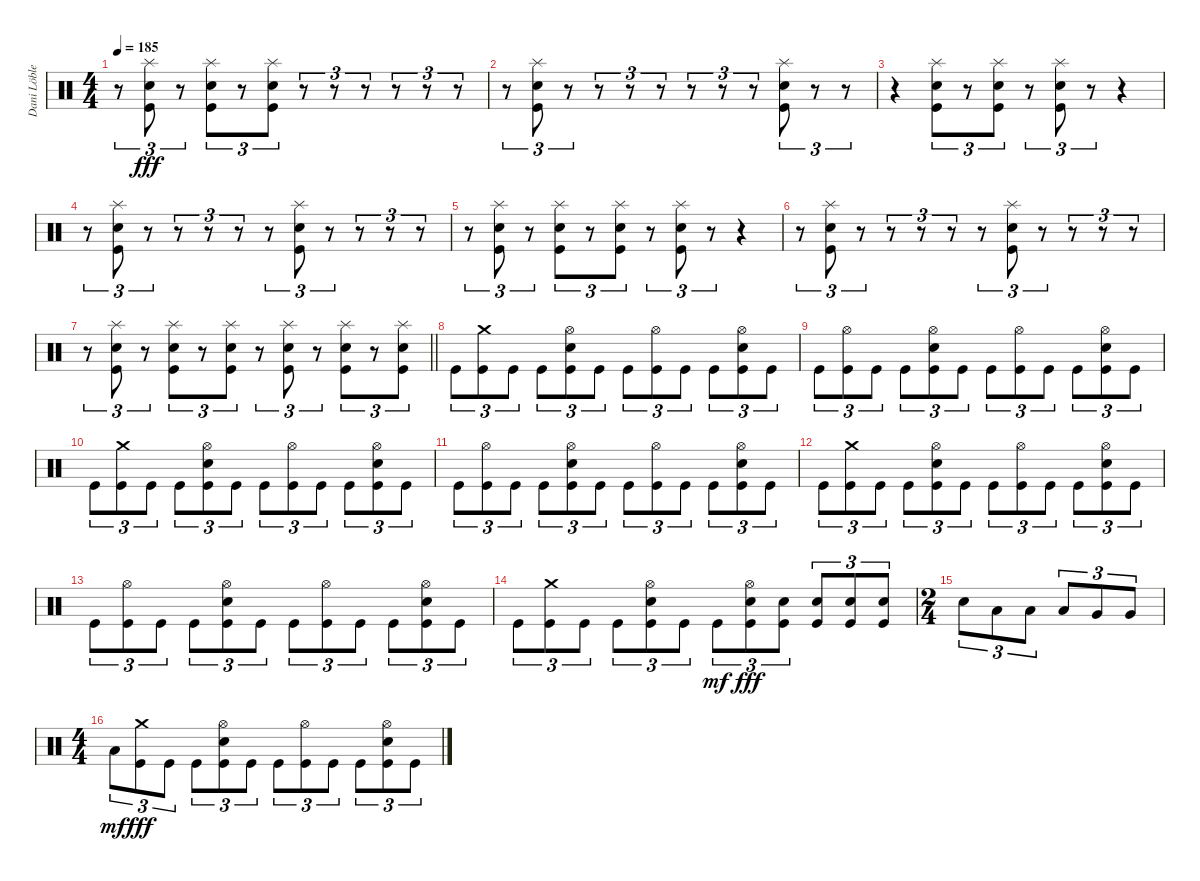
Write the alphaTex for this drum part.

\track ("Dani Löble" "Dani Löble") {instrument percussion}
\staff {score}
\articulation defaults
\ts (4 4)
\tempo 185
\clef neutral
\ks c
r.8{tu (3 2) dy fff} ("Splash (hit)" "Electric Snare (hit)" "Kick (hit)").8{tu (3 2)} r.8{tu (3 2)} ("Splash (hit)" "Electric Snare (hit)" "Kick (hit)").8{tu (3 2)} r.8{tu (3 2)} ("Splash (hit)" "Electric Snare (hit)" "Kick (hit)").8{tu (3 2)} r.8{tu (3 2)} r.8{tu (3 2)} r.8{tu (3 2)} r.8{tu (3 2)} r.8{tu (3 2)} r.8{tu (3 2)} |
r.8{tu (3 2)} ("Splash (hit)" "Electric Snare (hit)" "Kick (hit)").8{tu (3 2)} r.8{tu (3 2)} r.8{tu (3 2)} r.8{tu (3 2)} r.8{tu (3 2)} r.8{tu (3 2)} r.8{tu (3 2)} r.8{tu (3 2)} ("Splash (hit)" "Electric Snare (hit)" "Kick (hit)").8{tu (3 2)} r.8{tu (3 2)} r.8{tu (3 2)} |
r.4 ("Splash (hit)" "Electric Snare (hit)" "Kick (hit)").8{tu (3 2)} r.8{tu (3 2)} ("Splash (hit)" "Electric Snare (hit)" "Kick (hit)").8{tu (3 2)} r.8{tu (3 2)} ("Splash (hit)" "Electric Snare (hit)" "Kick (hit)").8{tu (3 2)} r.8{tu (3 2)} r.4 |
r.8{tu (3 2)} ("Splash (hit)" "Electric Snare (hit)" "Kick (hit)").8{tu (3 2)} r.8{tu (3 2)} r.8{tu (3 2)} r.8{tu (3 2)} r.8{tu (3 2)} r.8{tu (3 2)} ("Splash (hit)" "Electric Snare (hit)" "Kick (hit)").8{tu (3 2)} r.8{tu (3 2)} r.8{tu (3 2)} r.8{tu (3 2)} r.8{tu (3 2)} |
r.8{tu (3 2)} ("Splash (hit)" "Electric Snare (hit)" "Kick (hit)").8{tu (3 2)} r.8{tu (3 2)} ("Splash (hit)" "Electric Snare (hit)" "Kick (hit)").8{tu (3 2)} r.8{tu (3 2)} ("Splash (hit)" "Electric Snare (hit)" "Kick (hit)").8{tu (3 2)} r.8{tu (3 2)} ("Splash (hit)" "Electric Snare (hit)" "Kick (hit)").8{tu (3 2)} r.8{tu (3 2)} r.4 |
r.8{tu (3 2)} ("Splash (hit)" "Electric Snare (hit)" "Kick (hit)").8{tu (3 2)} r.8{tu (3 2)} r.8{tu (3 2)} r.8{tu (3 2)} r.8{tu (3 2)} r.8{tu (3 2)} ("Splash (hit)" "Electric Snare (hit)" "Kick (hit)").8{tu (3 2)} r.8{tu (3 2)} r.8{tu (3 2)} r.8{tu (3 2)} r.8{tu (3 2)} |
\barLineRight lightlight
r.8{tu (3 2)} ("Splash (hit)" "Electric Snare (hit)" "Kick (hit)").8{tu (3 2)} r.8{tu (3 2)} ("Splash (hit)" "Electric Snare (hit)" "Kick (hit)").8{tu (3 2)} r.8{tu (3 2)} ("Splash (hit)" "Electric Snare (hit)" "Kick (hit)").8{tu (3 2)} r.8{tu (3 2)} ("Splash (hit)" "Electric Snare (hit)" "Kick (hit)").8{tu (3 2)} r.8{tu (3 2)} ("Splash (hit)" "Electric Snare (hit)" "Kick (hit)").8{tu (3 2)} r.8{tu (3 2)} ("Splash (hit)" "Electric Snare (hit)" "Kick (hit)").8{tu (3 2)} |
\section ("" "")
"Kick (hit)".8{tu (3 2)} ("Crash medium (hit)" "Kick (hit)").8{tu (3 2)} "Kick (hit)".8{tu (3 2)} "Kick (hit)".8{tu (3 2)} ("Hi-Hat (open)" "Electric Snare (hit)" "Kick (hit)").8{tu (3 2)} "Kick (hit)".8{tu (3 2)} "Kick (hit)".8{tu (3 2)} ("Hi-Hat (open)" "Kick (hit)").8{tu (3 2)} "Kick (hit)".8{tu (3 2)} "Kick (hit)".8{tu (3 2)} ("Hi-Hat (open)" "Electric Snare (hit)" "Kick (hit)").8{tu (3 2)} "Kick (hit)".8{tu (3 2)} |
"Kick (hit)".8{tu (3 2)} ("Hi-Hat (open)" "Kick (hit)").8{tu (3 2)} "Kick (hit)".8{tu (3 2)} "Kick (hit)".8{tu (3 2)} ("Hi-Hat (open)" "Electric Snare (hit)" "Kick (hit)").8{tu (3 2)} "Kick (hit)".8{tu (3 2)} "Kick (hit)".8{tu (3 2)} ("Hi-Hat (open)" "Kick (hit)").8{tu (3 2)} "Kick (hit)".8{tu (3 2)} "Kick (hit)".8{tu (3 2)} ("Hi-Hat (open)" "Electric Snare (hit)" "Kick (hit)").8{tu (3 2)} "Kick (hit)".8{tu (3 2)} |
"Kick (hit)".8{tu (3 2)} ("Crash medium (hit)" "Kick (hit)").8{tu (3 2)} "Kick (hit)".8{tu (3 2)} "Kick (hit)".8{tu (3 2)} ("Hi-Hat (open)" "Electric Snare (hit)" "Kick (hit)").8{tu (3 2)} "Kick (hit)".8{tu (3 2)} "Kick (hit)".8{tu (3 2)} ("Hi-Hat (open)" "Kick (hit)").8{tu (3 2)} "Kick (hit)".8{tu (3 2)} "Kick (hit)".8{tu (3 2)} ("Hi-Hat (open)" "Electric Snare (hit)" "Kick (hit)").8{tu (3 2)} "Kick (hit)".8{tu (3 2)} |
"Kick (hit)".8{tu (3 2)} ("Hi-Hat (open)" "Kick (hit)").8{tu (3 2)} "Kick (hit)".8{tu (3 2)} "Kick (hit)".8{tu (3 2)} ("Hi-Hat (open)" "Electric Snare (hit)" "Kick (hit)").8{tu (3 2)} "Kick (hit)".8{tu (3 2)} "Kick (hit)".8{tu (3 2)} ("Hi-Hat (open)" "Kick (hit)").8{tu (3 2)} "Kick (hit)".8{tu (3 2)} "Kick (hit)".8{tu (3 2)} ("Hi-Hat (open)" "Electric Snare (hit)" "Kick (hit)").8{tu (3 2)} "Kick (hit)".8{tu (3 2)} |
"Kick (hit)".8{tu (3 2)} ("Crash medium (hit)" "Kick (hit)").8{tu (3 2)} "Kick (hit)".8{tu (3 2)} "Kick (hit)".8{tu (3 2)} ("Hi-Hat (open)" "Electric Snare (hit)" "Kick (hit)").8{tu (3 2)} "Kick (hit)".8{tu (3 2)} "Kick (hit)".8{tu (3 2)} ("Hi-Hat (open)" "Kick (hit)").8{tu (3 2)} "Kick (hit)".8{tu (3 2)} "Kick (hit)".8{tu (3 2)} ("Hi-Hat (open)" "Electric Snare (hit)" "Kick (hit)").8{tu (3 2)} "Kick (hit)".8{tu (3 2)} |
"Kick (hit)".8{tu (3 2)} ("Hi-Hat (open)" "Kick (hit)").8{tu (3 2)} "Kick (hit)".8{tu (3 2)} "Kick (hit)".8{tu (3 2)} ("Hi-Hat (open)" "Electric Snare (hit)" "Kick (hit)").8{tu (3 2)} "Kick (hit)".8{tu (3 2)} "Kick (hit)".8{tu (3 2)} ("Hi-Hat (open)" "Kick (hit)").8{tu (3 2)} "Kick (hit)".8{tu (3 2)} "Kick (hit)".8{tu (3 2)} ("Hi-Hat (open)" "Electric Snare (hit)" "Kick (hit)").8{tu (3 2)} "Kick (hit)".8{tu (3 2)} |
"Kick (hit)".8{tu (3 2)} ("Crash medium (hit)" "Kick (hit)").8{tu (3 2)} "Kick (hit)".8{tu (3 2)} "Kick (hit)".8{tu (3 2)} ("Hi-Hat (open)" "Electric Snare (hit)" "Kick (hit)").8{tu (3 2)} "Kick (hit)".8{tu (3 2)} "Kick (hit)".8{tu (3 2) dy mf} ("Hi-Hat (open)" "Electric Snare (hit)" "Kick (hit)").8{tu (3 2) dy fff} ("Electric Snare (hit)" "Kick (hit)").8{tu (3 2)} ("Electric Snare (hit)" "Kick (hit)").8{tu (3 2)} ("Electric Snare (hit)" "Kick (hit)").8{tu (3 2)} ("Electric Snare (hit)" "Kick (hit)").8{tu (3 2)} |
\ts (2 4)
"Electric Snare (hit)".8{tu (3 2)} "Low Tom (hit)".8{tu (3 2)} "Low Tom (hit)".8{tu (3 2)} "Low Tom (hit)".8{tu (3 2)} "Very Low Tom (hit)".8{tu (3 2)} "Very Low Tom (hit)".8{tu (3 2)} |
\ts (4 4)
"Low Floor Tom (hit)".8{tu (3 2) dy mf} ("Crash medium (hit)" "Kick (hit)").8{tu (3 2) dy fff} "Kick (hit)".8{tu (3 2)} "Kick (hit)".8{tu (3 2)} ("Hi-Hat (open)" "Electric Snare (hit)" "Kick (hit)").8{tu (3 2)} "Kick (hit)".8{tu (3 2)} "Kick (hit)".8{tu (3 2)} ("Hi-Hat (open)" "Kick (hit)").8{tu (3 2)} "Kick (hit)".8{tu (3 2)} "Kick (hit)".8{tu (3 2)} ("Hi-Hat (open)" "Electric Snare (hit)" "Kick (hit)").8{tu (3 2)} "Kick (hit)".8{tu (3 2)}
